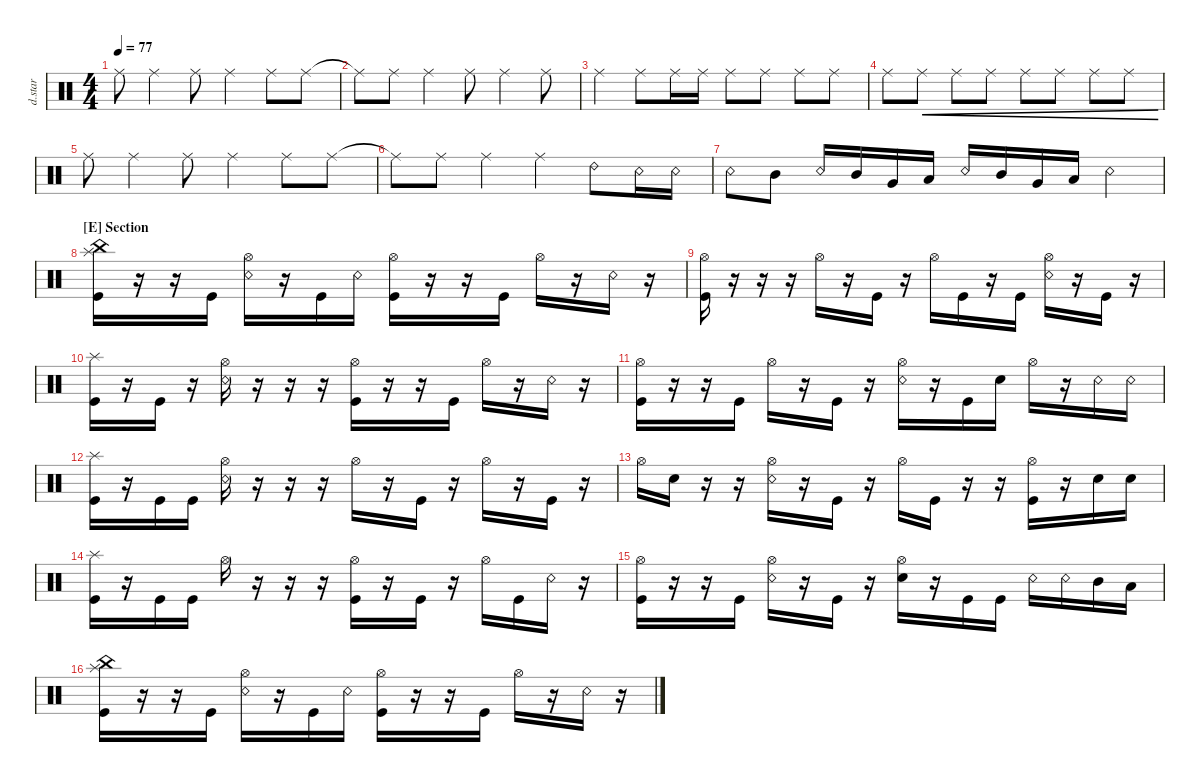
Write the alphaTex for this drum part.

\defaultSystemsLayout 4
\hideDynamics
\bracketExtendMode nobrackets
\otherSystemsTrackNameOrientation horizontal
\track ("Drumkit Star" "d.star") {instrument percussion}
\staff {score}
\articulation defaults
\ts (4 4)
\tempo 77
\clef neutral
\ks c "Ride (middle)".8{dy p} "Ride (middle)".4 "Ride (middle)".8 "Ride (middle)".4 "Ride (middle)".8 "Ride (middle)".8
|
"Ride (middle)"{t}.8 "Ride (middle)".8 "Ride (middle)".4 "Ride (middle)".8 "Ride (middle)".4 "Ride (middle)".8 |
"Ride (middle)".4 "Ride (middle)".8 "Ride (middle)".16 "Ride (middle)".16 "Ride (middle)".8 "Ride (middle)".8 "Ride (middle)".8 "Ride (middle)".8 |
"Ride (middle)".8 "Ride (middle)".8{cre} "Ride (middle)".8{cre} "Ride (middle)".8{cre} "Ride (middle)".8{cre} "Ride (middle)".8{cre} "Ride (middle)".8{cre} "Ride (middle)".8{cre} |
"Ride (middle)".8 "Ride (middle)".4 "Ride (middle)".8 "Ride (middle)".4 "Ride (middle)".8 "Ride (middle)".8 |
"Ride (middle)"{t}.8 "Ride (middle)".8 "Ride (middle)".4 "Ride (middle)".4 "Ride (bell) 2".8{dy mf} "Snare (rim shot)".16{dy f} "Snare (rim shot)".16 |
"Snare (rim shot)".8{dy ff} "Mid Tom (hit)".8 "Snare (rim shot)".16 "Mid Tom (hit)".16 "Very Low Tom (hit)".16 "Low Tom (hit)".16 "Snare (rim shot)".16 "Mid Tom (hit)".16 "Very Low Tom (hit)".16 "Low Tom (hit)".16 "Snare (rim shot)".4 |
\section ("E" "Section")
("China (hit)" "Splash (hit)" "Kick (hit)").16 r.16 r.16 "Kick (hit)".16 ("Snare (rim shot)" "Hi-Hat (open)").16 r.16 "Kick (hit)".16 "Snare (rim shot)".16 ("Hi-Hat (open)" "Kick (hit)").16 r.16 r.16 "Kick (hit)".16 "Hi-Hat (open)".16 r.16 "Snare (rim shot)".16 r.16 |
("Kick (hit)" "Hi-Hat (open)").16 r.16 r.16 r.16 "Hi-Hat (open)".16 r.16 "Kick (hit)".16 r.16 "Hi-Hat (open)".16 "Kick (hit)".16 r.16 "Kick (hit)".16 ("Hi-Hat (open)" "Snare (rim shot)").16 r.16 "Kick (hit)".16 r.16 |
("Splash (hit)" "Kick (hit)").16 r.16 "Kick (hit)".16 r.16 ("Snare (rim shot)" "Hi-Hat (open)").16 r.16 r.16 r.16 ("Hi-Hat (open)" "Kick (hit)").16 r.16 r.16 "Kick (hit)".16 "Hi-Hat (open)".16 r.16 "Snare (rim shot)".16 r.16 |
("Kick (hit)" "Hi-Hat (open)").16 r.16 r.16 "Kick (hit)".16 "Hi-Hat (open)".16 r.16 "Kick (hit)".16 r.16 ("Hi-Hat (open)" "Snare (rim shot)").16 r.16 "Kick (hit)".16 "Snare (hit) 2".16{dy mp} "Hi-Hat (open)".16{dy ff} r.16 "Snare (rim shot)".16 "Snare (rim shot)".16 |
("Kick (hit)" "Splash (hit)").16 r.16 "Kick (hit)".16 "Kick (hit)".16 ("Hi-Hat (open)" "Snare (rim shot)").16 r.16 r.16 r.16 "Hi-Hat (open)".16 r.16 "Kick (hit)".16 r.16 "Hi-Hat (open)".16 r.16 "Kick (hit)".16 r.16 |
"Hi-Hat (open)".16 "Snare (hit) 2".16{dy mp} r.16 r.16 ("Hi-Hat (open)" "Snare (rim shot)").16{dy ff} r.16 "Kick (hit)".16 r.16 "Hi-Hat (open)".16 "Kick (hit)".16 r.16 r.16 ("Hi-Hat (open)" "Kick (hit)").16 r.16 "Snare (hit) 2".16{dy mp} "Snare (hit) 2".16 |
("Kick (hit)" "Splash (hit)").16{dy ff} r.16 "Kick (hit)".16 "Kick (hit)".16 "Hi-Hat (open)".16 r.16 r.16 r.16 ("Hi-Hat (open)" "Kick (hit)").16 r.16 "Kick (hit)".16 r.16 "Hi-Hat (open)".16 "Kick (hit)".16 "Snare (rim shot)".16 r.16 |
("Kick (hit)" "Hi-Hat (open)").16 r.16 r.16 "Kick (hit)".16 ("Snare (rim shot)" "Hi-Hat (open)").16 r.16 "Kick (hit)".16 r.16 ("Snare (hit) 2" "Hi-Hat (open)").16 r.16 "Kick (hit)".16 "Kick (hit)".16 "Snare (rim shot)".16 "Snare (rim shot)".16 "Mid Tom (hit)".16 "Low Tom (hit)".16 |
("China (hit)" "Splash (hit)" "Kick (hit)").16 r.16 r.16 "Kick (hit)".16 ("Snare (rim shot)" "Hi-Hat (open)").16 r.16 "Kick (hit)".16 "Snare (rim shot)".16 ("Hi-Hat (open)" "Kick (hit)").16 r.16 r.16 "Kick (hit)".16 "Hi-Hat (open)".16 r.16 "Snare (rim shot)".16 r.16
